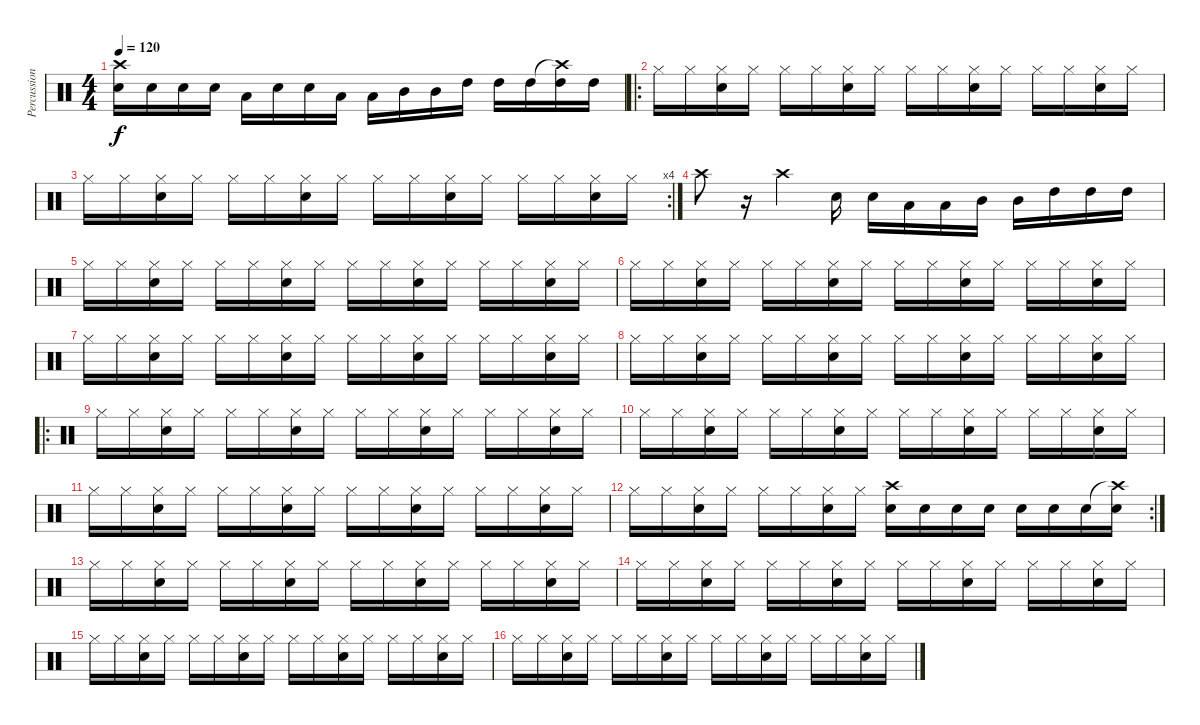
\track ("Percussions" "Percussion") {instrument percussion}
\staff {score}
\articulation defaults
\ts (4 4)
\tempo 120
\clef neutral
\ks c
("Crash high (hit)" "Snare (hit) 2").16{dy f} "Snare (hit) 2".16 "Snare (hit) 2".16 "Snare (hit) 2".16 "Low Floor Tom (hit)".16 "Snare (hit) 2".16 "Snare (hit) 2".16 "Low Floor Tom (hit)".16 "Low Floor Tom (hit)".16 "Mid Tom (hit)".16 "Mid Tom (hit)".16 "High Tom (hit)".16 "High Tom (hit)".16 "High Tom (hit)".16 ("Crash high (hit)"{t} "High Tom (hit)").16 "High Tom (hit)".16 |
\ro "Hi-Hat (closed)".16 "Hi-Hat (closed)".16
("Hi-Hat (closed)" "Snare (hit) 2").16 "Hi-Hat (closed)".16 "Hi-Hat (closed)".16 "Hi-Hat (closed)".16 ("Hi-Hat (closed)" "Snare (hit) 2").16 "Hi-Hat (closed)".16 "Hi-Hat (closed)".16 "Hi-Hat (closed)".16 ("Hi-Hat (closed)" "Snare (hit) 2").16 "Hi-Hat (closed)".16 "Hi-Hat (closed)".16 "Hi-Hat (closed)".16 ("Hi-Hat (closed)" "Snare (hit) 2").16 "Hi-Hat (closed)".16 |
\rc 4 "Hi-Hat (closed)".16 "Hi-Hat (closed)".16
("Hi-Hat (closed)" "Snare (hit) 2").16 "Hi-Hat (closed)".16 "Hi-Hat (closed)".16 "Hi-Hat (closed)".16 ("Hi-Hat (closed)" "Snare (hit) 2").16 "Hi-Hat (closed)".16 "Hi-Hat (closed)".16 "Hi-Hat (closed)".16 ("Hi-Hat (closed)" "Snare (hit) 2").16 "Hi-Hat (closed)".16 "Hi-Hat (closed)".16 "Hi-Hat (closed)".16 ("Hi-Hat (closed)" "Snare (hit) 2").16 "Hi-Hat (closed)".16 |
"Crash high (hit)".8 r.16 "Crash high (hit)".4 "Snare (hit) 2".16 "Snare (hit) 2".16 "Low Floor Tom (hit)".16 "Low Floor Tom (hit)".16 "Mid Tom (hit)".16 "Mid Tom (hit)".16 "High Tom (hit)".16 "High Tom (hit)".16 "High Tom (hit)".16 |
"Hi-Hat (closed)".16 "Hi-Hat (closed)".16 ("Hi-Hat (closed)" "Snare (hit) 2").16 "Hi-Hat (closed)".16 "Hi-Hat (closed)".16 "Hi-Hat (closed)".16 ("Hi-Hat (closed)" "Snare (hit) 2").16 "Hi-Hat (closed)".16 "Hi-Hat (closed)".16 "Hi-Hat (closed)".16 ("Hi-Hat (closed)" "Snare (hit) 2").16 "Hi-Hat (closed)".16 "Hi-Hat (closed)".16 "Hi-Hat (closed)".16 ("Hi-Hat (closed)" "Snare (hit) 2").16 "Hi-Hat (closed)".16 |
"Hi-Hat (closed)".16 "Hi-Hat (closed)".16 ("Hi-Hat (closed)" "Snare (hit) 2").16 "Hi-Hat (closed)".16 "Hi-Hat (closed)".16 "Hi-Hat (closed)".16 ("Hi-Hat (closed)" "Snare (hit) 2").16 "Hi-Hat (closed)".16 "Hi-Hat (closed)".16 "Hi-Hat (closed)".16 ("Hi-Hat (closed)" "Snare (hit) 2").16 "Hi-Hat (closed)".16 "Hi-Hat (closed)".16 "Hi-Hat (closed)".16 ("Hi-Hat (closed)" "Snare (hit) 2").16 "Hi-Hat (closed)".16 |
"Hi-Hat (closed)".16 "Hi-Hat (closed)".16 ("Hi-Hat (closed)" "Snare (hit) 2").16 "Hi-Hat (closed)".16 "Hi-Hat (closed)".16 "Hi-Hat (closed)".16 ("Hi-Hat (closed)" "Snare (hit) 2").16 "Hi-Hat (closed)".16 "Hi-Hat (closed)".16 "Hi-Hat (closed)".16 ("Hi-Hat (closed)" "Snare (hit) 2").16 "Hi-Hat (closed)".16 "Hi-Hat (closed)".16 "Hi-Hat (closed)".16 ("Hi-Hat (closed)" "Snare (hit) 2").16 "Hi-Hat (closed)".16 |
"Hi-Hat (closed)".16 "Hi-Hat (closed)".16 ("Hi-Hat (closed)" "Snare (hit) 2").16 "Hi-Hat (closed)".16 "Hi-Hat (closed)".16 "Hi-Hat (closed)".16 ("Hi-Hat (closed)" "Snare (hit) 2").16 "Hi-Hat (closed)".16 "Hi-Hat (closed)".16 "Hi-Hat (closed)".16 ("Hi-Hat (closed)" "Snare (hit) 2").16 "Hi-Hat (closed)".16 "Hi-Hat (closed)".16 "Hi-Hat (closed)".16 ("Hi-Hat (closed)" "Snare (hit) 2").16 "Hi-Hat (closed)".16 |
\ro "Hi-Hat (closed)".16 "Hi-Hat (closed)".16
("Hi-Hat (closed)" "Snare (hit) 2").16 "Hi-Hat (closed)".16 "Hi-Hat (closed)".16 "Hi-Hat (closed)".16 ("Hi-Hat (closed)" "Snare (hit) 2").16 "Hi-Hat (closed)".16 "Hi-Hat (closed)".16 "Hi-Hat (closed)".16 ("Hi-Hat (closed)" "Snare (hit) 2").16 "Hi-Hat (closed)".16 "Hi-Hat (closed)".16 "Hi-Hat (closed)".16 ("Hi-Hat (closed)" "Snare (hit) 2").16 "Hi-Hat (closed)".16 |
"Hi-Hat (closed)".16 "Hi-Hat (closed)".16 ("Hi-Hat (closed)" "Snare (hit) 2").16 "Hi-Hat (closed)".16 "Hi-Hat (closed)".16 "Hi-Hat (closed)".16 ("Hi-Hat (closed)" "Snare (hit) 2").16 "Hi-Hat (closed)".16 "Hi-Hat (closed)".16 "Hi-Hat (closed)".16 ("Hi-Hat (closed)" "Snare (hit) 2").16 "Hi-Hat (closed)".16 "Hi-Hat (closed)".16 "Hi-Hat (closed)".16 ("Hi-Hat (closed)" "Snare (hit) 2").16 "Hi-Hat (closed)".16 |
"Hi-Hat (closed)".16 "Hi-Hat (closed)".16 ("Hi-Hat (closed)" "Snare (hit) 2").16 "Hi-Hat (closed)".16 "Hi-Hat (closed)".16 "Hi-Hat (closed)".16 ("Hi-Hat (closed)" "Snare (hit) 2").16 "Hi-Hat (closed)".16 "Hi-Hat (closed)".16 "Hi-Hat (closed)".16 ("Hi-Hat (closed)" "Snare (hit) 2").16 "Hi-Hat (closed)".16 "Hi-Hat (closed)".16 "Hi-Hat (closed)".16 ("Hi-Hat (closed)" "Snare (hit) 2").16 "Hi-Hat (closed)".16 |
\rc 2 "Hi-Hat (closed)".16 "Hi-Hat (closed)".16
("Hi-Hat (closed)" "Snare (hit) 2").16 "Hi-Hat (closed)".16 "Hi-Hat (closed)".16 "Hi-Hat (closed)".16 ("Hi-Hat (closed)" "Snare (hit) 2").16 "Hi-Hat (closed)".16 ("Crash high (hit)" "Snare (hit) 2").16 "Snare (hit) 2".16 "Snare (hit) 2".16 "Snare (hit) 2".16 "Snare (hit) 2".16 "Snare (hit) 2".16 "Snare (hit) 2".16 ("Crash high (hit)"{t} "Snare (hit) 2").16 |
"Hi-Hat (closed)".16 "Hi-Hat (closed)".16 ("Hi-Hat (closed)" "Snare (hit) 2").16 "Hi-Hat (closed)".16 "Hi-Hat (closed)".16 "Hi-Hat (closed)".16 ("Hi-Hat (closed)" "Snare (hit) 2").16 "Hi-Hat (closed)".16 "Hi-Hat (closed)".16 "Hi-Hat (closed)".16 ("Hi-Hat (closed)" "Snare (hit) 2").16 "Hi-Hat (closed)".16 "Hi-Hat (closed)".16 "Hi-Hat (closed)".16 ("Hi-Hat (closed)" "Snare (hit) 2").16 "Hi-Hat (closed)".16 |
"Hi-Hat (closed)".16 "Hi-Hat (closed)".16 ("Hi-Hat (closed)" "Snare (hit) 2").16 "Hi-Hat (closed)".16 "Hi-Hat (closed)".16 "Hi-Hat (closed)".16 ("Hi-Hat (closed)" "Snare (hit) 2").16 "Hi-Hat (closed)".16 "Hi-Hat (closed)".16 "Hi-Hat (closed)".16 ("Hi-Hat (closed)" "Snare (hit) 2").16 "Hi-Hat (closed)".16 "Hi-Hat (closed)".16 "Hi-Hat (closed)".16 ("Hi-Hat (closed)" "Snare (hit) 2").16 "Hi-Hat (closed)".16 |
"Hi-Hat (closed)".16 "Hi-Hat (closed)".16 ("Hi-Hat (closed)" "Snare (hit) 2").16 "Hi-Hat (closed)".16 "Hi-Hat (closed)".16 "Hi-Hat (closed)".16 ("Hi-Hat (closed)" "Snare (hit) 2").16 "Hi-Hat (closed)".16 "Hi-Hat (closed)".16 "Hi-Hat (closed)".16 ("Hi-Hat (closed)" "Snare (hit) 2").16 "Hi-Hat (closed)".16 "Hi-Hat (closed)".16 "Hi-Hat (closed)".16 ("Hi-Hat (closed)" "Snare (hit) 2").16 "Hi-Hat (closed)".16 |
"Hi-Hat (closed)".16 "Hi-Hat (closed)".16 ("Hi-Hat (closed)" "Snare (hit) 2").16 "Hi-Hat (closed)".16 "Hi-Hat (closed)".16 "Hi-Hat (closed)".16 ("Hi-Hat (closed)" "Snare (hit) 2").16 "Hi-Hat (closed)".16 "Hi-Hat (closed)".16 "Hi-Hat (closed)".16 ("Hi-Hat (closed)" "Snare (hit) 2").16 "Hi-Hat (closed)".16 "Hi-Hat (closed)".16 "Hi-Hat (closed)".16 ("Hi-Hat (closed)" "Snare (hit) 2").16 "Hi-Hat (closed)".16
